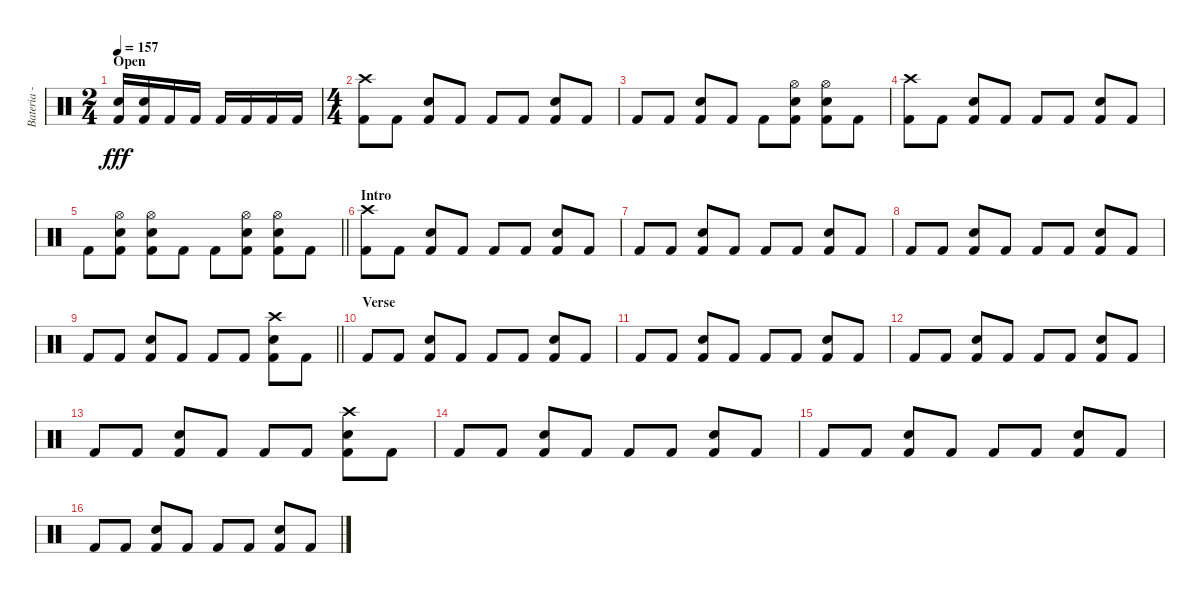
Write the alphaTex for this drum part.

\track ("Bateria - Larzon" "Bateria - ") {instrument percussion}
\staff {score}
\articulation defaults
\ts (2 4)
\section ("" "Open")
\tempo 157
\clef neutral
\ks c
("Kick (hit) 2" "Snare (hit) 2").16{dy fff} ("Kick (hit) 2" "Snare (hit) 2").16 "Kick (hit) 2".16 "Kick (hit) 2".16 "Kick (hit) 2".16 "Kick (hit) 2".16 "Kick (hit) 2".16 "Kick (hit) 2".16 |
\ts (4 4)
("Kick (hit) 2" "Crash high (hit)").8 "Kick (hit) 2".8 ("Kick (hit) 2" "Snare (hit) 2").8 "Kick (hit) 2".8 "Kick (hit) 2".8 "Kick (hit) 2".8 ("Kick (hit) 2" "Snare (hit) 2").8 "Kick (hit) 2".8 |
"Kick (hit) 2".8 "Kick (hit) 2".8 ("Kick (hit) 2" "Snare (hit) 2").8 "Kick (hit) 2".8 "Kick (hit) 2".8 ("Kick (hit) 2" "Hi-Hat (open)" "Snare (hit) 2").8 ("Kick (hit) 2" "Hi-Hat (open)" "Snare (hit) 2").8 "Kick (hit) 2".8 |
("Kick (hit) 2" "Crash high (hit)").8 "Kick (hit) 2".8 ("Kick (hit) 2" "Snare (hit) 2").8 "Kick (hit) 2".8 "Kick (hit) 2".8 "Kick (hit) 2".8 ("Kick (hit) 2" "Snare (hit) 2").8 "Kick (hit) 2".8 |
\barLineRight lightlight "Kick (hit) 2".8
("Kick (hit) 2" "Hi-Hat (open)" "Snare (hit) 2").8 ("Kick (hit) 2" "Hi-Hat (open)" "Snare (hit) 2").8 "Kick (hit) 2".8 "Kick (hit) 2".8 ("Kick (hit) 2" "Hi-Hat (open)" "Snare (hit) 2").8 ("Kick (hit) 2" "Hi-Hat (open)" "Snare (hit) 2").8 "Kick (hit) 2".8 |
\section ("" "Intro")
("Kick (hit) 2" "Crash high (hit)").8 "Kick (hit) 2".8 ("Kick (hit) 2" "Snare (hit) 2").8 "Kick (hit) 2".8 "Kick (hit) 2".8 "Kick (hit) 2".8 ("Kick (hit) 2" "Snare (hit) 2").8 "Kick (hit) 2".8 |
"Kick (hit) 2".8 "Kick (hit) 2".8 ("Kick (hit) 2" "Snare (hit) 2").8 "Kick (hit) 2".8 "Kick (hit) 2".8 "Kick (hit) 2".8 ("Kick (hit) 2" "Snare (hit) 2").8 "Kick (hit) 2".8 |
"Kick (hit) 2".8 "Kick (hit) 2".8 ("Kick (hit) 2" "Snare (hit) 2").8 "Kick (hit) 2".8 "Kick (hit) 2".8 "Kick (hit) 2".8 ("Kick (hit) 2" "Snare (hit) 2").8 "Kick (hit) 2".8 |
\barLineRight lightlight "Kick (hit) 2".8 "Kick (hit) 2".8
("Kick (hit) 2" "Snare (hit) 2").8 "Kick (hit) 2".8 "Kick (hit) 2".8 "Kick (hit) 2".8 ("Kick (hit) 2" "Crash high (hit)" "Snare (hit) 2").8 "Kick (hit) 2".8 |
\section ("" "Verse")
"Kick (hit) 2".8 "Kick (hit) 2".8 ("Kick (hit) 2" "Snare (hit) 2").8 "Kick (hit) 2".8 "Kick (hit) 2".8 "Kick (hit) 2".8 ("Kick (hit) 2" "Snare (hit) 2").8 "Kick (hit) 2".8 |
"Kick (hit) 2".8 "Kick (hit) 2".8 ("Kick (hit) 2" "Snare (hit) 2").8 "Kick (hit) 2".8 "Kick (hit) 2".8 "Kick (hit) 2".8 ("Kick (hit) 2" "Snare (hit) 2").8 "Kick (hit) 2".8 |
"Kick (hit) 2".8 "Kick (hit) 2".8 ("Kick (hit) 2" "Snare (hit) 2").8 "Kick (hit) 2".8 "Kick (hit) 2".8 "Kick (hit) 2".8 ("Kick (hit) 2" "Snare (hit) 2").8 "Kick (hit) 2".8 |
"Kick (hit) 2".8 "Kick (hit) 2".8 ("Kick (hit) 2" "Snare (hit) 2").8 "Kick (hit) 2".8 "Kick (hit) 2".8 "Kick (hit) 2".8 ("Kick (hit) 2" "Crash high (hit)" "Snare (hit) 2").8 "Kick (hit) 2".8 |
"Kick (hit) 2".8 "Kick (hit) 2".8 ("Kick (hit) 2" "Snare (hit) 2").8 "Kick (hit) 2".8 "Kick (hit) 2".8 "Kick (hit) 2".8 ("Kick (hit) 2" "Snare (hit) 2").8 "Kick (hit) 2".8 |
"Kick (hit) 2".8 "Kick (hit) 2".8 ("Kick (hit) 2" "Snare (hit) 2").8 "Kick (hit) 2".8 "Kick (hit) 2".8 "Kick (hit) 2".8 ("Kick (hit) 2" "Snare (hit) 2").8 "Kick (hit) 2".8 |
"Kick (hit) 2".8 "Kick (hit) 2".8 ("Kick (hit) 2" "Snare (hit) 2").8 "Kick (hit) 2".8 "Kick (hit) 2".8 "Kick (hit) 2".8 ("Kick (hit) 2" "Snare (hit) 2").8 "Kick (hit) 2".8
